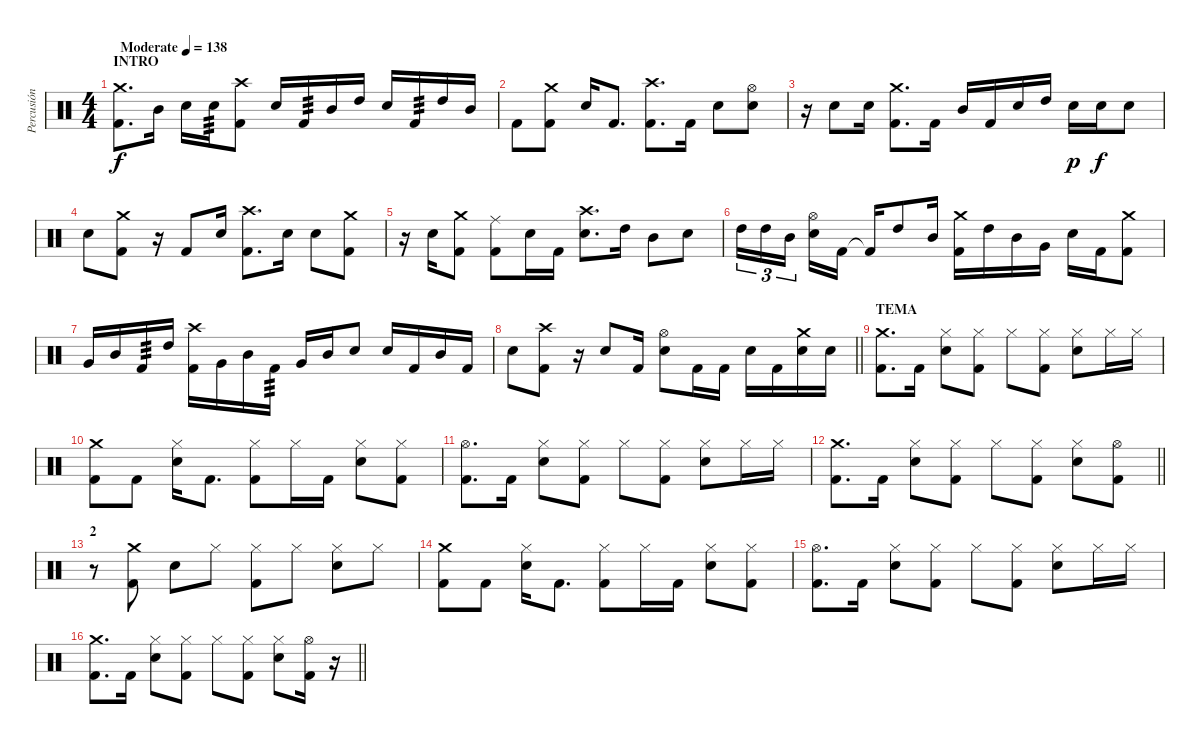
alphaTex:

\track ("Percusión" "Percusión") {instrument percussion}
\staff {score}
\articulation defaults
\ts (4 4)
\section ("" "INTRO")
\tempo (138 "Moderate")
\clef neutral
\ks c
("Crash medium (hit)" "Kick (hit) 2").8{d dy f} "Mid Tom (hit)".16 "Electric Snare (hit)".16 "Electric Snare (hit)".16{tp 3} ("Crash high (hit)" "Kick (hit) 2").8 "Electric Snare (hit)".16 "Kick (hit) 2".16{tp 3} "Mid Tom (hit)".16 "High Tom (hit)".16 "Electric Snare (hit)".16 "Kick (hit) 2".16{tp 3} "High Tom (hit)".16 "Mid Tom (hit)".16 |
"Kick (hit) 2".8 ("Crash medium (hit)" "Kick (hit) 2").8 "Electric Snare (hit)".16 "Kick (hit) 2".8{d} ("Crash high (hit)" "Kick (hit) 2").8{d} "Kick (hit) 2".16 "Electric Snare (hit)".8 ("Hi-Hat (open)" "Electric Snare (hit)").8 |
r.16 "Electric Snare (hit)".8 "Electric Snare (hit)".16 ("Crash medium (hit)" "Kick (hit) 2").8{d} "Kick (hit) 2".16 "Mid Tom (hit)".16 "Kick (hit) 2".16 "Electric Snare (hit)".16 "High Tom (hit)".16 "Electric Snare (hit)".16{dy p} "Electric Snare (hit)".16{dy f} "Electric Snare (hit)".8 |
"Electric Snare (hit)".8 ("Crash medium (hit)" "Kick (hit) 2").8 r.16 "Kick (hit) 2".8 "Electric Snare (hit)".16 ("Crash high (hit)" "Kick (hit) 2").8{d} "Electric Snare (hit)".16 "Electric Snare (hit)".8 ("Crash medium (hit)" "Kick (hit) 2").8 |
r.16 "Electric Snare (hit)".16 ("Crash medium (hit)" "Kick (hit) 2").8 ("Ride (middle)" "Kick (hit) 2").8 "Electric Snare (hit)".16 "Kick (hit) 2".16 ("Crash high (hit)" "Electric Snare (hit)").8{d} "High Tom (hit)".16 "Mid Tom (hit)".8 "Electric Snare (hit)".8 |
"High Tom (hit)".16{tu (3 2)} "High Tom (hit)".16{tu (3 2)} "Mid Tom (hit)".16{tu (3 2) beam splitsecondary} ("Hi-Hat (open)" "Electric Snare (hit)").16 "Kick (hit) 2".16 "Kick (hit) 2"{t}.16 "High Tom (hit)".8 "Mid Tom (hit)".16 ("Crash medium (hit)" "Kick (hit) 2").16 "High Tom (hit)".16 "Mid Tom (hit)".16 "Very Low Tom (hit)".16 "Electric Snare (hit)".16 "Kick (hit) 2".16 ("Crash medium (hit)" "Kick (hit) 2").8 |
"Very Low Tom (hit)".16 "Mid Tom (hit)".16 "Kick (hit) 2".16{tp 3} "High Tom (hit)".16 ("Crash high (hit)" "Kick (hit) 2").16 "Very Low Tom (hit)".16 "Mid Tom (hit)".16 "Kick (hit) 2".16{tp 3} "Very Low Tom (hit)".16 "Mid Tom (hit)".16 "Electric Snare (hit)".8 "Electric Snare (hit)".16 "Kick (hit) 2".16 "Mid Tom (hit)".16 "Kick (hit) 2".16 |
\barLineRight lightlight "Electric Snare (hit)".8
("Crash high (hit)" "Kick (hit) 2").8 r.16 "Electric Snare (hit)".8 "Kick (hit) 2".16 ("Hi-Hat (open)" "Electric Snare (hit)").8 "Kick (hit) 2".16 "Kick (hit) 2".16 "Electric Snare (hit)".16 "Kick (hit) 2".16 ("Crash medium (hit)" "Electric Snare (hit)").16 "Electric Snare (hit)".16 |
\section ("" "TEMA")
("Crash medium (hit)" "Kick (hit) 2").8{d} "Kick (hit) 2".16 ("Hi-Hat (closed)" "Electric Snare (hit)").8 ("Hi-Hat (closed)" "Kick (hit) 2").8 "Hi-Hat (closed)".8 ("Hi-Hat (closed)" "Kick (hit) 2").8 ("Hi-Hat (closed)" "Electric Snare (hit)").8 "Hi-Hat (closed)".16 "Hi-Hat (closed)".16 |
("Crash medium (hit)" "Kick (hit) 2").8 "Kick (hit) 2".8 ("Hi-Hat (closed)" "Electric Snare (hit)").16 "Kick (hit) 2".8{d} ("Hi-Hat (closed)" "Kick (hit) 2").8 "Hi-Hat (closed)".16 "Kick (hit) 2".16 ("Hi-Hat (closed)" "Electric Snare (hit)").8 ("Hi-Hat (closed)" "Kick (hit) 2").8 |
("Hi-Hat (open)" "Kick (hit) 2").8{d} "Kick (hit) 2".16 ("Hi-Hat (closed)" "Electric Snare (hit)").8 ("Hi-Hat (closed)" "Kick (hit) 2").8 "Hi-Hat (closed)".8 ("Hi-Hat (closed)" "Kick (hit) 2").8 ("Hi-Hat (closed)" "Electric Snare (hit)").8 "Hi-Hat (closed)".16 "Hi-Hat (closed)".16 |
\barLineRight lightlight
("Crash medium (hit)" "Kick (hit) 2").8{d} "Kick (hit) 2".16 ("Hi-Hat (closed)" "Electric Snare (hit)").8 ("Hi-Hat (closed)" "Kick (hit) 2").8 "Hi-Hat (closed)".8 ("Hi-Hat (closed)" "Kick (hit) 2").8 ("Hi-Hat (closed)" "Electric Snare (hit)").8 ("Hi-Hat (open)" "Kick (hit) 2").8 |
\section ("" "2")
r.8 ("Crash medium (hit)" "Kick (hit) 2").8 "Electric Snare (hit)".8 "Hi-Hat (closed)".8 ("Hi-Hat (closed)" "Kick (hit) 2").8 "Hi-Hat (closed)".8 ("Hi-Hat (closed)" "Electric Snare (hit)").8 "Hi-Hat (closed)".8 |
("Crash medium (hit)" "Kick (hit) 2").8 "Kick (hit) 2".8 ("Hi-Hat (closed)" "Electric Snare (hit)").16 "Kick (hit) 2".8{d} ("Hi-Hat (closed)" "Kick (hit) 2").8 "Hi-Hat (closed)".16 "Kick (hit) 2".16 ("Hi-Hat (closed)" "Electric Snare (hit)").8 ("Hi-Hat (closed)" "Kick (hit) 2").8 |
("Hi-Hat (open)" "Kick (hit) 2").8{d} "Kick (hit) 2".16 ("Hi-Hat (closed)" "Electric Snare (hit)").8 ("Hi-Hat (closed)" "Kick (hit) 2").8 "Hi-Hat (closed)".8 ("Hi-Hat (closed)" "Kick (hit) 2").8 ("Hi-Hat (closed)" "Electric Snare (hit)").8 "Hi-Hat (closed)".16 "Hi-Hat (closed)".16 |
\barLineRight lightlight
("Crash medium (hit)" "Kick (hit) 2").8{d} "Kick (hit) 2".16 ("Hi-Hat (closed)" "Electric Snare (hit)").8 ("Hi-Hat (closed)" "Kick (hit) 2").8 "Hi-Hat (closed)".8 ("Hi-Hat (closed)" "Kick (hit) 2").8 ("Hi-Hat (closed)" "Electric Snare (hit)").8 ("Hi-Hat (open)" "Kick (hit) 2").16 r.16
